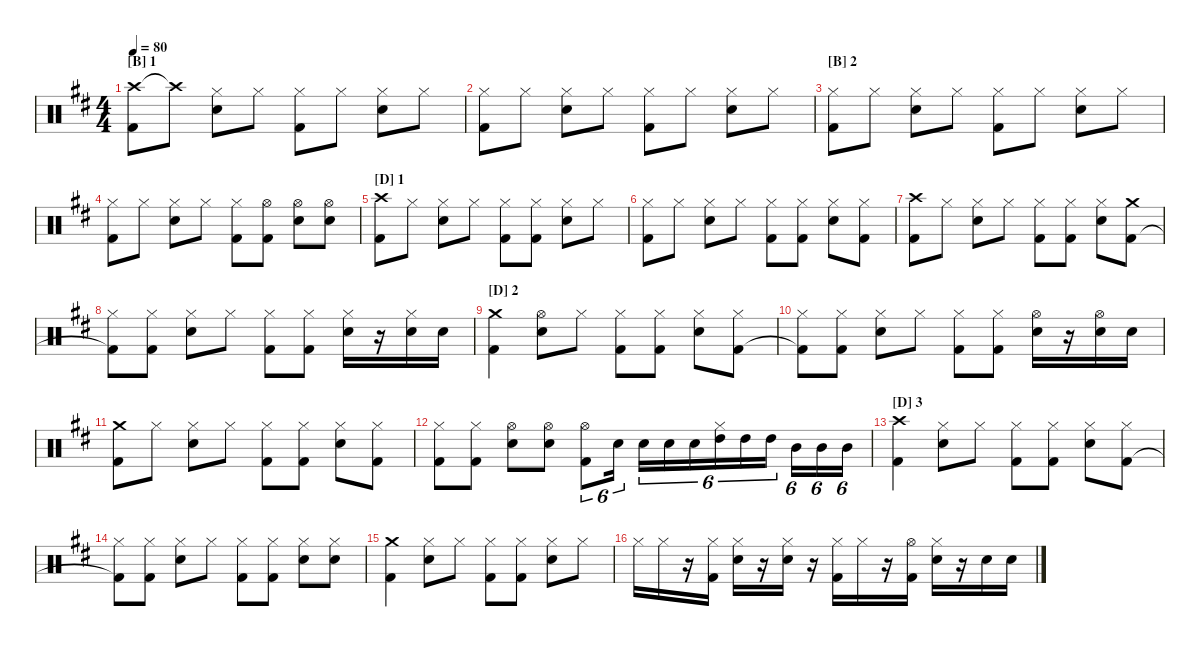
\hideDynamics
\bracketExtendMode nobrackets
\singleTrackTrackNamePolicy hidden
\multiTrackTrackNamePolicy hidden
\otherSystemsTrackNameOrientation horizontal
\track ("Drumkit" "Drums") {instrument percussion}
\staff {score}
\articulation defaults
\ts (4 4)
\section ("B" "1")
\tempo 80
\clef neutral
\ks d
("Crash high (hit)"{acc forcenatural} "Kick (hit) 2"{acc forcenatural}).8{dy f beam Down} "Crash high (hit)"{t acc forcenatural}.8{beam Down} ("Hi-Hat (closed)"{acc forcenatural} "Snare (hit) 2"{acc forcenatural}).8{beam Down} "Hi-Hat (closed)"{acc forcenatural}.8{beam Down} ("Hi-Hat (closed)"{acc forcenatural} "Kick (hit) 2"{acc forcenatural}).8{beam Down} "Hi-Hat (closed)"{acc forcenatural}.8{beam Down} ("Hi-Hat (closed)"{acc forcenatural} "Snare (hit) 2"{acc forcenatural}).8{beam Down} "Hi-Hat (closed)"{acc forcenatural}.8{beam Down} |
("Hi-Hat (closed)"{acc forcenatural} "Kick (hit) 2"{acc forcenatural}).8{beam Down} "Hi-Hat (closed)"{acc forcenatural}.8{beam Down} ("Hi-Hat (closed)"{acc forcenatural} "Snare (hit) 2"{acc forcenatural}).8{beam Down} "Hi-Hat (closed)"{acc forcenatural}.8{beam Down} ("Hi-Hat (closed)"{acc forcenatural} "Kick (hit) 2"{acc forcenatural}).8{beam Down} "Hi-Hat (closed)"{acc forcenatural}.8{beam Down} ("Hi-Hat (closed)"{acc forcenatural} "Snare (hit) 2"{acc forcenatural}).8{beam Down} "Hi-Hat (closed)"{acc forcenatural}.8{beam Down} |
\section ("B" "2")
("Hi-Hat (closed)"{acc forcenatural} "Kick (hit) 2"{acc forcenatural}).8{beam Down} "Hi-Hat (closed)"{acc forcenatural}.8{beam Down} ("Hi-Hat (closed)"{acc forcenatural} "Snare (hit) 2"{acc forcenatural}).8{beam Down} "Hi-Hat (closed)"{acc forcenatural}.8{beam Down} ("Hi-Hat (closed)"{acc forcenatural} "Kick (hit) 2"{acc forcenatural}).8{beam Down} "Hi-Hat (closed)"{acc forcenatural}.8{beam Down} ("Hi-Hat (closed)"{acc forcenatural} "Snare (hit) 2"{acc forcenatural}).8{beam Down} "Hi-Hat (closed)"{acc forcenatural}.8{beam Down} |
("Hi-Hat (closed)"{acc forcenatural} "Kick (hit) 2"{acc forcenatural}).8{beam Down} "Hi-Hat (closed)"{acc forcenatural}.8{beam Down} ("Hi-Hat (closed)"{acc forcenatural} "Snare (hit) 2"{acc forcenatural}).8{beam Down} "Hi-Hat (closed)"{acc forcenatural}.8{beam Down} ("Hi-Hat (closed)"{acc forcenatural} "Kick (hit) 2"{acc forcenatural}).8{beam Down} ("Hi-Hat (open)"{acc forcenatural} "Kick (hit) 2"{acc forcenatural}).8{beam Down} ("Hi-Hat (open)"{acc forcenatural} "Snare (hit) 2"{acc forcenatural}).8{beam Down} ("Hi-Hat (open)"{acc forcenatural} "Snare (hit) 2"{acc forcenatural}).8{beam Down} |
\section ("D" "1")
("Crash high (hit)"{acc forcenatural} "Kick (hit) 2"{acc forcenatural}).8{beam Down} "Hi-Hat (closed)"{acc forcenatural}.8{beam Down} ("Hi-Hat (closed)"{acc forcenatural} "Snare (hit) 2"{acc forcenatural}).8{beam Down} "Hi-Hat (closed)"{acc forcenatural}.8{beam Down} ("Hi-Hat (closed)"{acc forcenatural} "Kick (hit) 2"{acc forcenatural}).8{beam Down} ("Hi-Hat (closed)"{acc forcenatural} "Kick (hit) 2"{acc forcenatural}).8{beam Down} ("Hi-Hat (closed)"{acc forcenatural} "Snare (hit) 2"{acc forcenatural}).8{beam Down} "Hi-Hat (closed)"{acc forcenatural}.8{beam Down} |
("Hi-Hat (closed)"{acc forcenatural} "Kick (hit) 2"{acc forcenatural}).8{beam Down} "Hi-Hat (closed)"{acc forcenatural}.8{beam Down} ("Hi-Hat (closed)"{acc forcenatural} "Snare (hit) 2"{acc forcenatural}).8{beam Down} "Hi-Hat (closed)"{acc forcenatural}.8{beam Down} ("Hi-Hat (closed)"{acc forcenatural} "Kick (hit) 2"{acc forcenatural}).8{beam Down} ("Hi-Hat (closed)"{acc forcenatural} "Kick (hit) 2"{acc forcenatural}).8{beam Down} ("Hi-Hat (closed)"{acc forcenatural} "Snare (hit) 2"{acc forcenatural}).8{beam Down} ("Hi-Hat (closed)"{acc forcenatural} "Kick (hit) 2"{acc forcenatural}).8{beam Down} |
("Crash high (hit)"{acc forcenatural} "Kick (hit) 2"{acc forcenatural}).8{beam Down} "Hi-Hat (closed)"{acc forcenatural}.8{beam Down} ("Hi-Hat (closed)"{acc forcenatural} "Snare (hit) 2"{acc forcenatural}).8{beam Down} "Hi-Hat (closed)"{acc forcenatural}.8{beam Down} ("Hi-Hat (closed)"{acc forcenatural} "Kick (hit) 2"{acc forcenatural}).8{beam Down} ("Hi-Hat (closed)"{acc forcenatural} "Kick (hit) 2"{acc forcenatural}).8{beam Down} ("Hi-Hat (closed)"{acc forcenatural} "Snare (hit) 2"{acc forcenatural}).8{beam Down} ("Crash medium (hit)"{acc forcenatural} "Kick (hit) 2"{acc forcenatural}).8{beam Down} |
("Hi-Hat (closed)"{acc forcenatural} "Kick (hit) 2"{t acc forcenatural}).8{beam Down} ("Hi-Hat (closed)"{acc forcenatural} "Kick (hit) 2"{acc forcenatural}).8{beam Down} ("Hi-Hat (closed)"{acc forcenatural} "Snare (hit) 2"{acc forcenatural}).8{beam Down} "Hi-Hat (closed)"{acc forcenatural}.8{beam Down} ("Hi-Hat (closed)"{acc forcenatural} "Kick (hit) 2"{acc forcenatural}).8{beam Down} ("Hi-Hat (closed)"{acc forcenatural} "Kick (hit) 2"{acc forcenatural}).8{beam Down} ("Hi-Hat (closed)"{acc forcenatural} "Snare (hit) 2"{acc forcenatural}).16{beam Down} r.16{beam Down} ("Hi-Hat (closed)"{acc forcenatural} "Snare (hit) 2"{acc forcenatural}).16{beam Down} "Snare (hit) 2"{acc forcenatural}.16{beam Down} |
\section ("D" "2")
("Crash medium (hit)"{acc forcenatural} "Kick (hit) 2"{acc forcenatural}).4{beam Down} ("Hi-Hat (open)"{acc forcenatural} "Snare (hit) 2"{acc forcenatural}).8{beam Down} "Hi-Hat (closed)"{acc forcenatural}.8{beam Down} ("Hi-Hat (closed)"{acc forcenatural} "Kick (hit) 2"{acc forcenatural}).8{beam Down} ("Hi-Hat (closed)"{acc forcenatural} "Kick (hit) 2"{acc forcenatural}).8{beam Down} ("Hi-Hat (closed)"{acc forcenatural} "Snare (hit) 2"{acc forcenatural}).8{beam Down} ("Hi-Hat (closed)"{acc forcenatural} "Kick (hit) 2"{acc forcenatural}).8{beam Down} |
("Hi-Hat (closed)"{acc forcenatural} "Kick (hit) 2"{t acc forcenatural}).8{beam Down} ("Hi-Hat (closed)"{acc forcenatural} "Kick (hit) 2"{acc forcenatural}).8{beam Down} ("Hi-Hat (closed)"{acc forcenatural} "Snare (hit) 2"{acc forcenatural}).8{beam Down} "Hi-Hat (closed)"{acc forcenatural}.8{beam Down} ("Hi-Hat (closed)"{acc forcenatural} "Kick (hit) 2"{acc forcenatural}).8{beam Down} ("Hi-Hat (closed)"{acc forcenatural} "Kick (hit) 2"{acc forcenatural}).8{beam Down} ("Hi-Hat (open)"{acc forcenatural} "Snare (hit) 2"{acc forcenatural}).16{beam Down} r.16{beam Down} ("Hi-Hat (open)"{acc forcenatural} "Snare (hit) 2"{acc forcenatural}).16{beam Down} "Snare (hit) 2"{acc forcenatural}.16{beam Down} |
("Crash medium (hit)"{acc forcenatural} "Kick (hit) 2"{acc forcenatural}).8{beam Down} "Hi-Hat (closed)"{acc forcenatural}.8{beam Down} ("Hi-Hat (closed)"{acc forcenatural} "Snare (hit) 2"{acc forcenatural}).8{beam Down} "Hi-Hat (closed)"{acc forcenatural}.8{beam Down} ("Hi-Hat (closed)"{acc forcenatural} "Kick (hit) 2"{acc forcenatural}).8{beam Down} ("Hi-Hat (closed)"{acc forcenatural} "Kick (hit) 2"{acc forcenatural}).8{beam Down} ("Hi-Hat (closed)"{acc forcenatural} "Snare (hit) 2"{acc forcenatural}).8{beam Down} ("Hi-Hat (closed)"{acc forcenatural} "Kick (hit) 2"{acc forcenatural}).8{beam Down} |
("Hi-Hat (closed)"{acc forcenatural} "Kick (hit) 2"{acc forcenatural}).8{beam Down} ("Hi-Hat (closed)"{acc forcenatural} "Kick (hit) 2"{acc forcenatural}).8{beam Down} ("Hi-Hat (open)"{acc forcenatural} "Snare (hit) 2"{acc forcenatural}).8{beam Down} ("Hi-Hat (open)"{acc forcenatural} "Snare (hit) 2"{acc forcenatural}).8{beam Down} ("Hi-Hat (open)"{acc forcenatural} "Kick (hit) 2"{acc forcenatural}).8{tu (6 4) beam Down} "Snare (hit) 2"{acc forcenatural}.16{tu (6 4) beam Down} "Snare (hit) 2"{acc forcenatural}.16{tu (6 4) beam Down} "Snare (hit) 2"{acc forcenatural}.16{tu (6 4) beam Down} "Snare (hit) 2"{acc forcenatural}.16{tu (6 4) beam Down} ("Hi-Hat (closed)"{acc forcenatural} "High Tom (hit)"{acc forcenatural}).16{tu (6 4) beam Down} "High Tom (hit)"{acc forcenatural}.16{tu (6 4) beam Down} "High Tom (hit)"{acc forcenatural}.16{tu (6 4) beam Down} "Mid Tom (hit)"{acc forcenatural}.16{tu (6 4) beam Down} "Mid Tom (hit)"{acc forcenatural}.16{tu (6 4) beam Down} "Mid Tom (hit)"{acc forcenatural}.16{tu (6 4) beam Down} |
\section ("D" "3")
("Crash high (hit)"{acc forcenatural} "Kick (hit) 2"{acc forcenatural}).4{beam Down} ("Hi-Hat (closed)"{acc forcenatural} "Snare (hit) 2"{acc forcenatural}).8{beam Down} "Hi-Hat (closed)"{acc forcenatural}.8{beam Down} ("Hi-Hat (closed)"{acc forcenatural} "Kick (hit) 2"{acc forcenatural}).8{beam Down} ("Hi-Hat (closed)"{acc forcenatural} "Kick (hit) 2"{acc forcenatural}).8{beam Down} ("Hi-Hat (closed)"{acc forcenatural} "Snare (hit) 2"{acc forcenatural}).8{beam Down} ("Hi-Hat (closed)"{acc forcenatural} "Kick (hit) 2"{acc forcenatural}).8{beam Down} |
("Hi-Hat (closed)"{acc forcenatural} "Kick (hit) 2"{t acc forcenatural}).8{beam Down} ("Hi-Hat (closed)"{acc forcenatural} "Kick (hit) 2"{acc forcenatural}).8{beam Down} ("Hi-Hat (closed)"{acc forcenatural} "Snare (hit) 2"{acc forcenatural}).8{beam Down} "Hi-Hat (closed)"{acc forcenatural}.8{beam Down} ("Hi-Hat (closed)"{acc forcenatural} "Kick (hit) 2"{acc forcenatural}).8{beam Down} ("Hi-Hat (closed)"{acc forcenatural} "Kick (hit) 2"{acc forcenatural}).8{beam Down} ("Hi-Hat (closed)"{acc forcenatural} "Snare (hit) 2"{acc forcenatural}).8{beam Down} ("Hi-Hat (closed)"{acc forcenatural} "Snare (hit) 2"{acc forcenatural}).8{beam Down} |
("Crash medium (hit)"{acc forcenatural} "Kick (hit) 2"{acc forcenatural}).4{beam Down} ("Hi-Hat (closed)"{acc forcenatural} "Snare (hit) 2"{acc forcenatural}).8{beam Down} "Hi-Hat (closed)"{acc forcenatural}.8{beam Down} ("Hi-Hat (closed)"{acc forcenatural} "Kick (hit) 2"{acc forcenatural}).8{beam Down} ("Hi-Hat (closed)"{acc forcenatural} "Kick (hit) 2"{acc forcenatural}).8{beam Down} ("Hi-Hat (closed)"{acc forcenatural} "Snare (hit) 2"{acc forcenatural}).8{beam Down} "Hi-Hat (closed)"{acc forcenatural}.8{beam Down} |
"Hi-Hat (closed)"{acc forcenatural}.16{beam Down} "Hi-Hat (closed)"{acc forcenatural}.16{beam Down} r.16{beam Down} ("Hi-Hat (closed)"{acc forcenatural} "Kick (hit) 2"{acc forcenatural}).16{beam Down} ("Hi-Hat (closed)"{acc forcenatural} "Snare (hit) 2"{acc forcenatural}).16{beam Down} r.16{beam Down} ("Hi-Hat (closed)"{acc forcenatural} "Snare (hit) 2"{acc forcenatural}).16{beam Down} r.16{beam Down} ("Hi-Hat (closed)"{acc forcenatural} "Kick (hit) 2"{acc forcenatural}).16{beam Down} "Hi-Hat (closed)"{acc forcenatural}.16{beam Down} r.16{beam Down} ("Hi-Hat (open)"{acc forcenatural} "Kick (hit) 2"{acc forcenatural}).16{beam Down} ("Hi-Hat (closed)"{acc forcenatural} "Snare (hit) 2"{acc forcenatural}).16{beam Down} r.16{beam Down} "Snare (hit) 2"{acc forcenatural}.16{beam Down} "Snare (hit) 2"{acc forcenatural}.16{beam Down}
